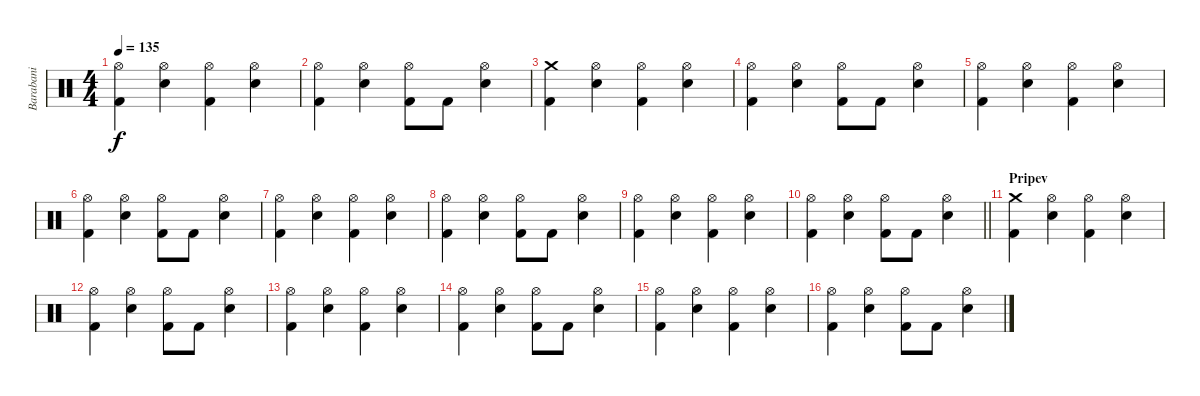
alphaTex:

\track ("Barabani" "Barabani") {instrument percussion}
\staff {score}
\articulation defaults
\ts (4 4)
\tempo 135
\clef neutral
\ks c
("Hi-Hat (open)" "Kick (hit) 2").4{dy f} ("Hi-Hat (open)" "Snare (hit) 2").4 ("Hi-Hat (open)" "Kick (hit) 2").4 ("Hi-Hat (open)" "Snare (hit) 2").4 |
("Hi-Hat (open)" "Kick (hit) 2").4 ("Hi-Hat (open)" "Snare (hit) 2").4 ("Hi-Hat (open)" "Kick (hit) 2").8 "Kick (hit) 2".8 ("Hi-Hat (open)" "Snare (hit) 2").4 |
("Crash medium (hit)" "Kick (hit) 2").4 ("Hi-Hat (open)" "Snare (hit) 2").4 ("Hi-Hat (open)" "Kick (hit) 2").4 ("Hi-Hat (open)" "Snare (hit) 2").4 |
("Hi-Hat (open)" "Kick (hit) 2").4 ("Hi-Hat (open)" "Snare (hit) 2").4 ("Hi-Hat (open)" "Kick (hit) 2").8 "Kick (hit) 2".8 ("Hi-Hat (open)" "Snare (hit) 2").4 |
("Hi-Hat (open)" "Kick (hit) 2").4 ("Hi-Hat (open)" "Snare (hit) 2").4 ("Hi-Hat (open)" "Kick (hit) 2").4 ("Hi-Hat (open)" "Snare (hit) 2").4 |
("Hi-Hat (open)" "Kick (hit) 2").4 ("Hi-Hat (open)" "Snare (hit) 2").4 ("Hi-Hat (open)" "Kick (hit) 2").8 "Kick (hit) 2".8 ("Hi-Hat (open)" "Snare (hit) 2").4 |
("Hi-Hat (open)" "Kick (hit) 2").4 ("Hi-Hat (open)" "Snare (hit) 2").4 ("Hi-Hat (open)" "Kick (hit) 2").4 ("Hi-Hat (open)" "Snare (hit) 2").4 |
("Hi-Hat (open)" "Kick (hit) 2").4 ("Hi-Hat (open)" "Snare (hit) 2").4 ("Hi-Hat (open)" "Kick (hit) 2").8 "Kick (hit) 2".8 ("Hi-Hat (open)" "Snare (hit) 2").4 |
("Hi-Hat (open)" "Kick (hit) 2").4 ("Hi-Hat (open)" "Snare (hit) 2").4 ("Hi-Hat (open)" "Kick (hit) 2").4 ("Hi-Hat (open)" "Snare (hit) 2").4 |
\barLineRight lightlight
("Hi-Hat (open)" "Kick (hit) 2").4 ("Hi-Hat (open)" "Snare (hit) 2").4 ("Hi-Hat (open)" "Kick (hit) 2").8 "Kick (hit) 2".8 ("Hi-Hat (open)" "Snare (hit) 2").4 |
\section ("" "Pripev")
("Crash medium (hit)" "Kick (hit) 2").4 ("Hi-Hat (open)" "Snare (hit) 2").4 ("Hi-Hat (open)" "Kick (hit) 2").4 ("Hi-Hat (open)" "Snare (hit) 2").4 |
("Hi-Hat (open)" "Kick (hit) 2").4 ("Hi-Hat (open)" "Snare (hit) 2").4 ("Hi-Hat (open)" "Kick (hit) 2").8 "Kick (hit) 2".8 ("Hi-Hat (open)" "Snare (hit) 2").4 |
("Hi-Hat (open)" "Kick (hit) 2").4 ("Hi-Hat (open)" "Snare (hit) 2").4 ("Hi-Hat (open)" "Kick (hit) 2").4 ("Hi-Hat (open)" "Snare (hit) 2").4 |
("Hi-Hat (open)" "Kick (hit) 2").4 ("Hi-Hat (open)" "Snare (hit) 2").4 ("Hi-Hat (open)" "Kick (hit) 2").8 "Kick (hit) 2".8 ("Hi-Hat (open)" "Snare (hit) 2").4 |
("Hi-Hat (open)" "Kick (hit) 2").4 ("Hi-Hat (open)" "Snare (hit) 2").4 ("Hi-Hat (open)" "Kick (hit) 2").4 ("Hi-Hat (open)" "Snare (hit) 2").4 |
("Hi-Hat (open)" "Kick (hit) 2").4 ("Hi-Hat (open)" "Snare (hit) 2").4 ("Hi-Hat (open)" "Kick (hit) 2").8 "Kick (hit) 2".8 ("Hi-Hat (open)" "Snare (hit) 2").4
